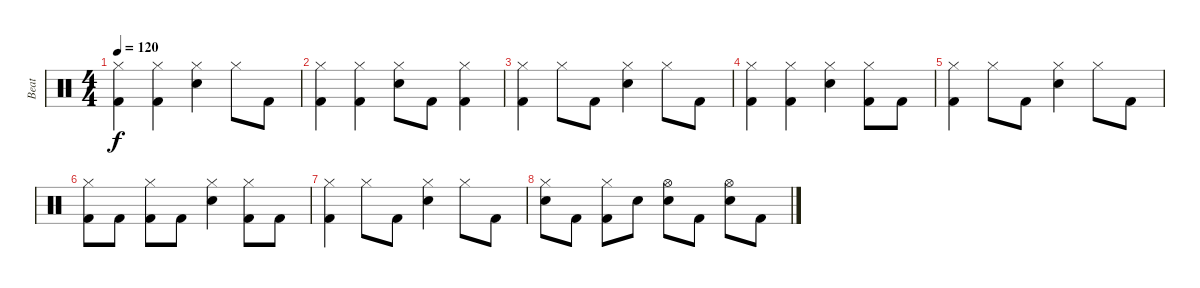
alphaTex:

\track ("Beat" "Beat") {instrument percussion}
\staff {score}
\articulation defaults
\ts (4 4)
\tempo 120
\clef neutral
\ks c
("Hi-Hat (closed)" "Kick (hit) 2").4{dy f} ("Hi-Hat (closed)" "Kick (hit) 2").4 ("Hi-Hat (closed)" "Snare (hit) 2").4 "Hi-Hat (closed)".8 "Kick (hit) 2".8 |
("Hi-Hat (closed)" "Kick (hit) 2").4 ("Hi-Hat (closed)" "Kick (hit) 2").4 ("Hi-Hat (closed)" "Snare (hit) 2").8 "Kick (hit) 2".8 ("Hi-Hat (closed)" "Kick (hit) 2").4 |
("Hi-Hat (closed)" "Kick (hit) 2").4 "Hi-Hat (closed)".8 "Kick (hit) 2".8 ("Hi-Hat (closed)" "Snare (hit) 2").4 "Hi-Hat (closed)".8 "Kick (hit) 2".8 |
("Hi-Hat (closed)" "Kick (hit) 2").4 ("Hi-Hat (closed)" "Kick (hit) 2").4 ("Hi-Hat (closed)" "Snare (hit) 2").4 ("Hi-Hat (closed)" "Kick (hit) 2").8 "Kick (hit) 2".8 |
("Hi-Hat (closed)" "Kick (hit) 2").4 "Hi-Hat (closed)".8 "Kick (hit) 2".8 ("Hi-Hat (closed)" "Snare (hit) 2").4 "Hi-Hat (closed)".8 "Kick (hit) 2".8 |
("Hi-Hat (closed)" "Kick (hit) 2").8 "Kick (hit) 2".8 ("Hi-Hat (closed)" "Kick (hit) 2").8 "Kick (hit) 2".8 ("Hi-Hat (closed)" "Snare (hit) 2").4 ("Hi-Hat (closed)" "Kick (hit) 2").8 "Kick (hit) 2".8 |
("Hi-Hat (closed)" "Kick (hit) 2").4 "Hi-Hat (closed)".8 "Kick (hit) 2".8 ("Hi-Hat (closed)" "Snare (hit) 2").4 "Hi-Hat (closed)".8 "Kick (hit) 2".8 |
("Hi-Hat (closed)" "Snare (hit) 2").8 "Kick (hit) 2".8 ("Hi-Hat (closed)" "Kick (hit) 2").8 "Snare (hit) 2".8 ("Hi-Hat (open)" "Snare (hit) 2").8 "Kick (hit) 2".8 ("Hi-Hat (open)" "Snare (hit) 2").8 "Kick (hit) 2".8
